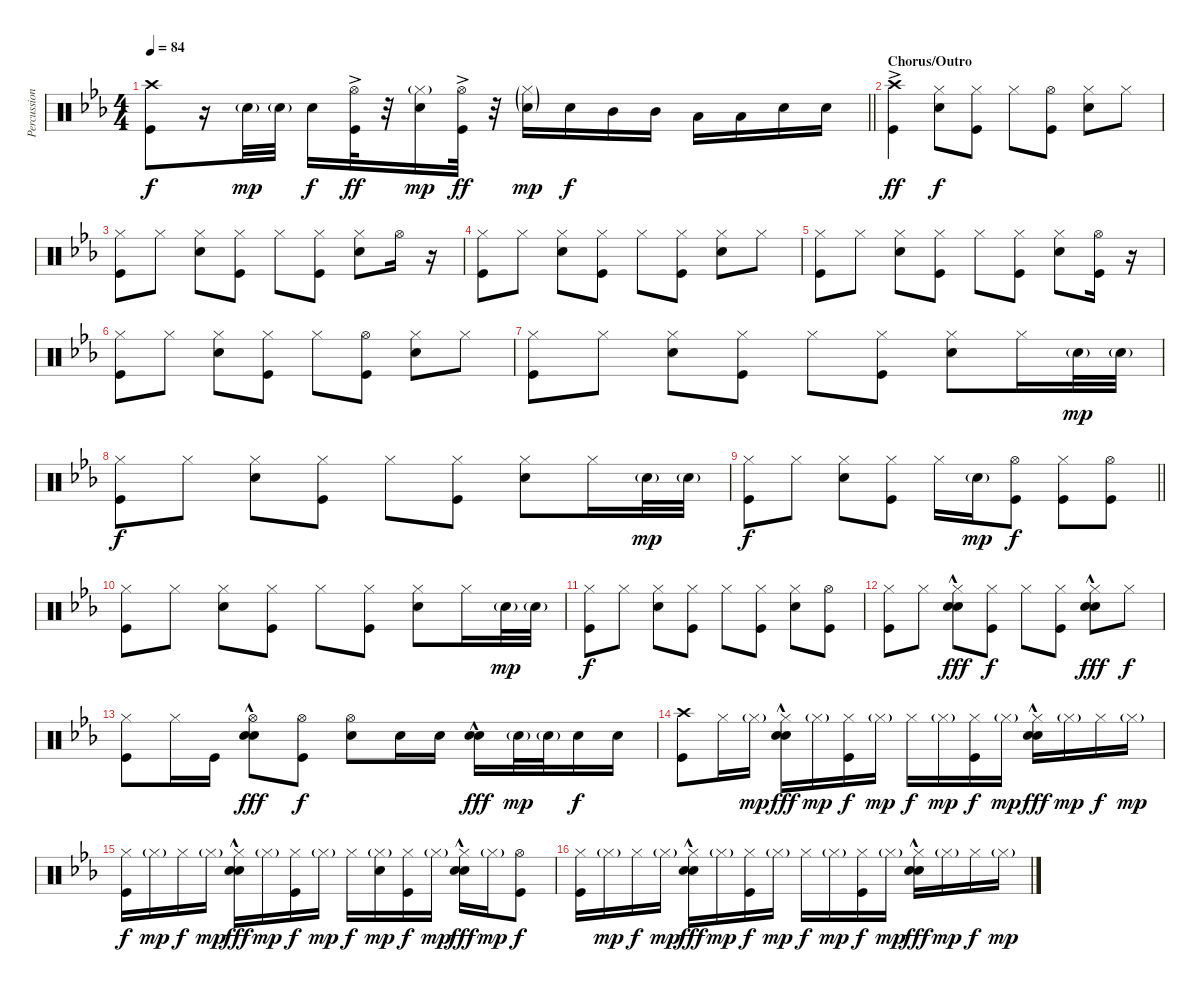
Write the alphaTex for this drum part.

\track ("Percussion" "Percussion") {instrument percussion}
\staff {score}
\articulation defaults
\ts (4 4)
\tempo 84
\clef neutral
\barLineRight lightlight
\ks eb
("Crash high (hit)" "Kick (hit)").8{dy f} r.16 "Snare (hit) 2"{g}.32{dy mp} "Snare (hit) 2"{g}.32 "Snare (hit) 2".16{dy f} ("Hi-Hat (open)" "Kick (hit)"{ac}).32{dy ff} r.32 ("Hi-Hat (closed)"{g} "Snare (hit) 2").16{dy mp} ("Hi-Hat (open)" "Kick (hit)"{ac}).32{dy ff} r.32 ("Hi-Hat (closed)"{g} "Snare (hit) 2"{g}).16{dy mp} "Snare (hit) 2".16{dy f} "Mid Tom (hit)".16 "Mid Tom (hit)".16 "Low Tom (hit)".16 "Low Tom (hit)".16 "Snare (hit) 2".16 "Snare (hit) 2".16 |
\section ("" "Chorus/Outro")
("Crash high (hit)" "Kick (hit)"{ac}).4{dy ff} ("Hi-Hat (closed)" "Snare (hit) 2").8{dy f} ("Hi-Hat (closed)" "Kick (hit)").8 "Hi-Hat (closed)".8 ("Hi-Hat (open)" "Kick (hit)").8 ("Hi-Hat (closed)" "Snare (hit) 2").8 "Hi-Hat (closed)".8 |
("Hi-Hat (closed)" "Kick (hit)").8 "Hi-Hat (closed)".8 ("Hi-Hat (closed)" "Snare (hit) 2").8 ("Hi-Hat (closed)" "Kick (hit)").8 "Hi-Hat (closed)".8 ("Hi-Hat (closed)" "Kick (hit)").8 ("Hi-Hat (closed)" "Snare (hit) 2").8 "Hi-Hat (open)".16 r.16 |
("Hi-Hat (closed)" "Kick (hit)").8 "Hi-Hat (closed)".8 ("Hi-Hat (closed)" "Snare (hit) 2").8 ("Hi-Hat (closed)" "Kick (hit)").8 "Hi-Hat (closed)".8 ("Hi-Hat (closed)" "Kick (hit)").8 ("Hi-Hat (closed)" "Snare (hit) 2").8 "Hi-Hat (closed)".8 |
("Hi-Hat (closed)" "Kick (hit)").8 "Hi-Hat (closed)".8 ("Hi-Hat (closed)" "Snare (hit) 2").8 ("Hi-Hat (closed)" "Kick (hit)").8 "Hi-Hat (closed)".8 ("Hi-Hat (closed)" "Kick (hit)").8 ("Hi-Hat (closed)" "Snare (hit) 2").8 ("Hi-Hat (open)" "Kick (hit)").16 r.16 |
("Hi-Hat (closed)" "Kick (hit)").8 "Hi-Hat (closed)".8 ("Hi-Hat (closed)" "Snare (hit) 2").8 ("Hi-Hat (closed)" "Kick (hit)").8 "Hi-Hat (closed)".8 ("Hi-Hat (open)" "Kick (hit)").8 ("Hi-Hat (closed)" "Snare (hit) 2").8 "Hi-Hat (closed)".8 |
("Hi-Hat (closed)" "Kick (hit)").8 "Hi-Hat (closed)".8 ("Hi-Hat (closed)" "Snare (hit) 2").8 ("Hi-Hat (closed)" "Kick (hit)").8 "Hi-Hat (closed)".8 ("Hi-Hat (closed)" "Kick (hit)").8 ("Hi-Hat (closed)" "Snare (hit) 2").8 "Hi-Hat (closed)".16 "Snare (hit) 2"{g}.32{dy mp} "Snare (hit) 2"{g}.32 |
("Hi-Hat (closed)" "Kick (hit)").8{dy f} "Hi-Hat (closed)".8 ("Hi-Hat (closed)" "Snare (hit) 2").8 ("Hi-Hat (closed)" "Kick (hit)").8 "Hi-Hat (closed)".8 ("Hi-Hat (closed)" "Kick (hit)").8 ("Hi-Hat (closed)" "Snare (hit) 2").8 "Hi-Hat (closed)".16 "Snare (hit) 2"{g}.32{dy mp} "Snare (hit) 2"{g}.32 |
\barLineRight lightlight
("Hi-Hat (closed)" "Kick (hit)").8{dy f} "Hi-Hat (closed)".8 ("Hi-Hat (closed)" "Snare (hit) 2").8 ("Hi-Hat (closed)" "Kick (hit)").8 "Hi-Hat (closed)".16 "Snare (hit) 2"{g}.16{dy mp} ("Hi-Hat (open)" "Kick (hit)").8{dy f} ("Hi-Hat (closed)" "Kick (hit)").8 ("Hi-Hat (open)" "Kick (hit)").8 |
("Hi-Hat (closed)" "Kick (hit)").8 "Hi-Hat (closed)".8 ("Hi-Hat (closed)" "Snare (hit) 2").8 ("Hi-Hat (closed)" "Kick (hit)").8 "Hi-Hat (closed)".8 ("Hi-Hat (closed)" "Kick (hit)").8 ("Hi-Hat (closed)" "Snare (hit) 2").8 "Hi-Hat (closed)".16 "Snare (hit) 2"{g}.32{dy mp} "Snare (hit) 2"{g}.32 |
("Hi-Hat (closed)" "Kick (hit)").8{dy f} "Hi-Hat (closed)".8 ("Hi-Hat (closed)" "Snare (hit) 2").8 ("Hi-Hat (closed)" "Kick (hit)").8 "Hi-Hat (closed)".8 ("Hi-Hat (closed)" "Kick (hit)").8 ("Hi-Hat (closed)" "Snare (hit) 2").8 ("Hi-Hat (open)" "Kick (hit)").8 |
("Hi-Hat (closed)" "Kick (hit)").8 "Hi-Hat (closed)".8 ("Hi-Hat (closed)" "Hand Clap (hit)"{hac} "Snare (hit) 2").8{dy fff} ("Hi-Hat (closed)" "Kick (hit)").8{dy f} "Hi-Hat (closed)".8 ("Hi-Hat (closed)" "Kick (hit)").8 ("Hi-Hat (closed)" "Hand Clap (hit)"{hac} "Snare (hit) 2").8{dy fff} "Hi-Hat (closed)".8{dy f} |
("Hi-Hat (closed)" "Kick (hit)").8 "Hi-Hat (closed)".16 "Kick (hit)".16 ("Hi-Hat (open)" "Hand Clap (hit)"{hac} "Snare (hit) 2").8{dy fff} ("Hi-Hat (open)" "Kick (hit)").8{dy f} ("Hi-Hat (open)" "Snare (hit) 2").8 "Snare (hit) 2".16 "Snare (hit) 2".16 ("Hand Clap (hit)"{hac} "Snare (hit) 2").16{dy fff} "Snare (hit) 2"{g}.32{dy mp} "Snare (hit) 2"{g}.32 "Snare (hit) 2".16{dy f} "Snare (hit) 2".16 |
("Crash high (hit)" "Kick (hit)").8 "Hi-Hat (closed)".16 "Hi-Hat (closed)"{g}.16{dy mp} ("Hi-Hat (closed)" "Hand Clap (hit)"{hac} "Snare (hit) 2").16{dy fff} "Hi-Hat (closed)"{g}.16{dy mp} ("Hi-Hat (closed)" "Kick (hit)").16{dy f} "Hi-Hat (closed)"{g}.16{dy mp} "Hi-Hat (closed)".16{dy f} "Hi-Hat (closed)"{g}.16{dy mp} ("Hi-Hat (closed)" "Kick (hit)").16{dy f} "Hi-Hat (closed)"{g}.16{dy mp} ("Hi-Hat (closed)" "Hand Clap (hit)"{hac} "Snare (hit) 2").16{dy fff} "Hi-Hat (closed)"{g}.16{dy mp} "Hi-Hat (closed)".16{dy f} "Hi-Hat (closed)"{g}.16{dy mp} |
("Hi-Hat (closed)" "Kick (hit)").16{dy f} "Hi-Hat (closed)"{g}.16{dy mp} "Hi-Hat (closed)".16{dy f} "Hi-Hat (closed)"{g}.16{dy mp} ("Hi-Hat (closed)" "Hand Clap (hit)"{hac} "Snare (hit) 2").16{dy fff} "Hi-Hat (closed)"{g}.16{dy mp} ("Hi-Hat (closed)" "Kick (hit)").16{dy f} "Hi-Hat (closed)"{g}.16{dy mp} "Hi-Hat (closed)".16{dy f} ("Hi-Hat (closed)"{g} "Snare (hit) 2").16{dy mp} ("Hi-Hat (closed)" "Kick (hit)").16{dy f} "Hi-Hat (closed)"{g}.16{dy mp} ("Hi-Hat (closed)" "Hand Clap (hit)"{hac} "Snare (hit) 2").16{dy fff} "Hi-Hat (closed)"{g}.16{dy mp} ("Hi-Hat (open)" "Kick (hit)").8{dy f} |
("Hi-Hat (closed)" "Kick (hit)").16 "Hi-Hat (closed)"{g}.16{dy mp} "Hi-Hat (closed)".16{dy f} "Hi-Hat (closed)"{g}.16{dy mp} ("Hi-Hat (closed)" "Hand Clap (hit)"{hac} "Snare (hit) 2").16{dy fff} "Hi-Hat (closed)"{g}.16{dy mp} ("Hi-Hat (closed)" "Kick (hit)").16{dy f} "Hi-Hat (closed)"{g}.16{dy mp} "Hi-Hat (closed)".16{dy f} "Hi-Hat (closed)"{g}.16{dy mp} ("Hi-Hat (closed)" "Kick (hit)").16{dy f} "Hi-Hat (closed)"{g}.16{dy mp} ("Hi-Hat (closed)" "Hand Clap (hit)"{hac} "Snare (hit) 2").16{dy fff} "Hi-Hat (closed)"{g}.16{dy mp} "Hi-Hat (closed)".16{dy f} "Hi-Hat (closed)"{g}.16{dy mp}
